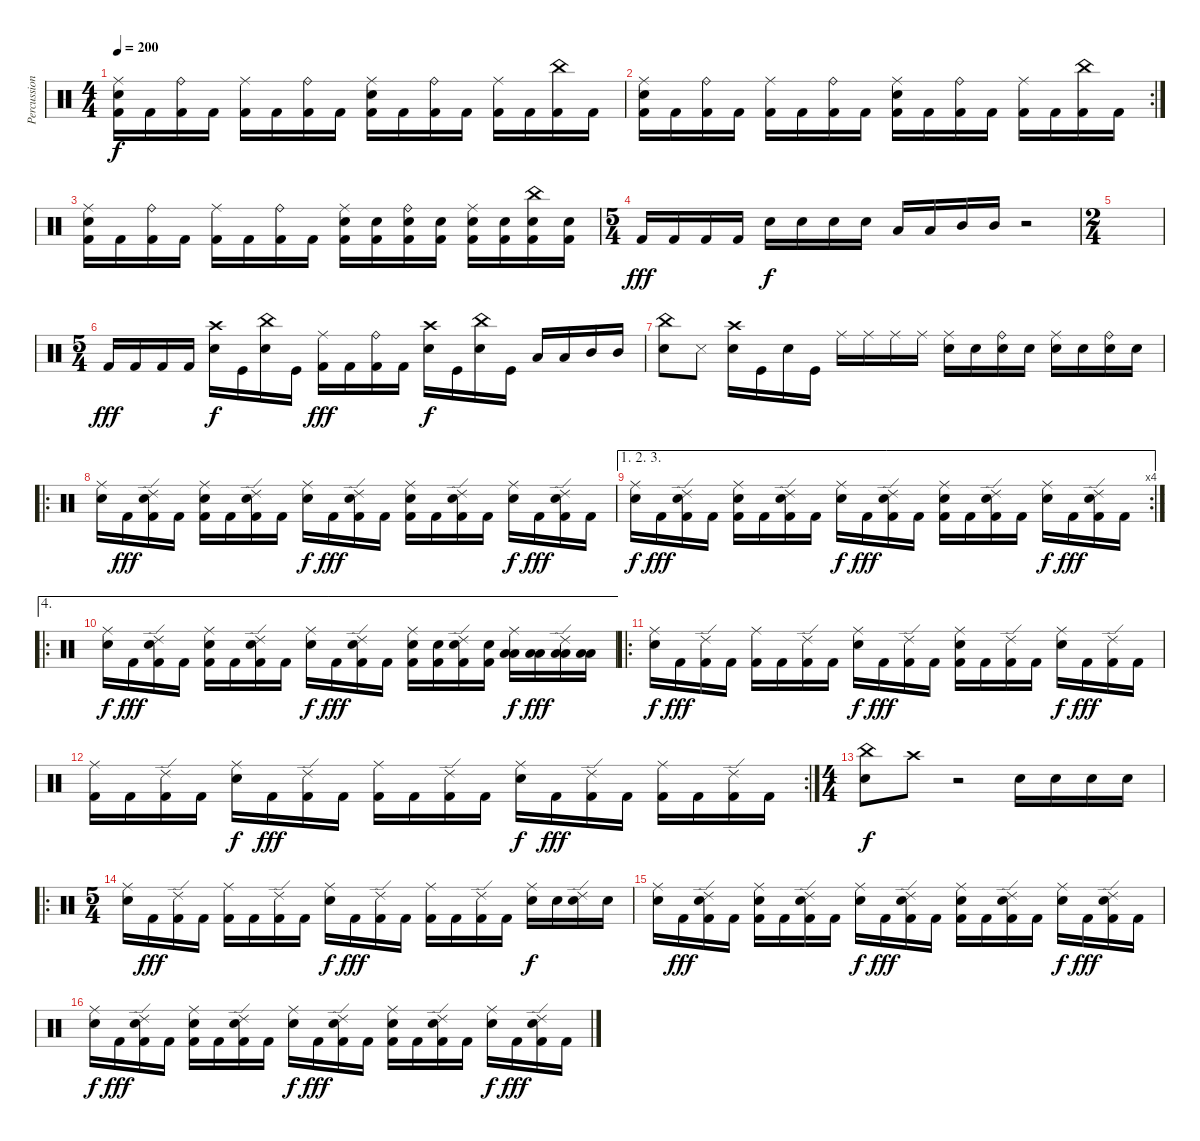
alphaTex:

\track ("Percussion" "Percussion") {instrument percussion}
\staff {score}
\articulation defaults
\ts (4 4)
\tempo 200
\clef neutral
\ks c
("Ride (middle)" "Electric Snare (hit)" "Kick (hit) 2").16{dy f} "Kick (hit) 2".16 ("Ride (bell)" "Kick (hit) 2").16 "Kick (hit) 2".16 ("Ride (middle)" "Kick (hit) 2").16 "Kick (hit) 2".16 ("Ride (bell)" "Kick (hit) 2").16 "Kick (hit) 2".16 ("Ride (middle)" "Electric Snare (hit)" "Kick (hit) 2").16 "Kick (hit) 2".16 ("Ride (bell)" "Kick (hit) 2").16 "Kick (hit) 2".16 ("Ride (middle)" "Kick (hit) 2").16 "Kick (hit) 2".16 ("China (hit)" "Kick (hit) 2").16 "Kick (hit) 2".16 |
\rc 2
("Ride (middle)" "Electric Snare (hit)" "Kick (hit) 2").16 "Kick (hit) 2".16 ("Ride (bell)" "Kick (hit) 2").16 "Kick (hit) 2".16 ("Ride (middle)" "Kick (hit) 2").16 "Kick (hit) 2".16 ("Ride (bell)" "Kick (hit) 2").16 "Kick (hit) 2".16 ("Ride (middle)" "Electric Snare (hit)" "Kick (hit) 2").16 "Kick (hit) 2".16 ("Ride (bell)" "Kick (hit) 2").16 "Kick (hit) 2".16 ("Ride (middle)" "Kick (hit) 2").16 "Kick (hit) 2".16 ("China (hit)" "Kick (hit) 2").16 "Kick (hit) 2".16 |
("Ride (middle)" "Electric Snare (hit)" "Kick (hit) 2").16 "Kick (hit) 2".16 ("Ride (bell)" "Kick (hit) 2").16 "Kick (hit) 2".16 ("Ride (middle)" "Kick (hit) 2").16 "Kick (hit) 2".16 ("Ride (bell)" "Kick (hit) 2").16 "Kick (hit) 2".16 ("Ride (middle)" "Electric Snare (hit)" "Kick (hit) 2").16 ("Electric Snare (hit)" "Kick (hit) 2").16 ("Ride (bell)" "Electric Snare (hit)" "Kick (hit) 2").16 ("Electric Snare (hit)" "Kick (hit) 2").16 ("Ride (middle)" "Electric Snare (hit)" "Kick (hit) 2").16 ("Electric Snare (hit)" "Kick (hit) 2").16 ("China (hit)" "Electric Snare (hit)" "Kick (hit) 2").16 ("Electric Snare (hit)" "Kick (hit) 2").16 |
\ts (5 4)
"Kick (hit) 2".16{dy fff} "Kick (hit) 2".16 "Kick (hit) 2".16 "Kick (hit) 2".16 "Electric Snare (hit)".16{dy f} "Electric Snare (hit)".16 "Electric Snare (hit)".16 "Electric Snare (hit)".16 "Low Tom (hit)".16 "Low Tom (hit)".16 "Mid Tom (hit)".16 "Mid Tom (hit)".16 r.2 |
\ts (2 4)
|
\ts (5 4)
"Kick (hit) 2".16{dy fff} "Kick (hit) 2".16 "Kick (hit) 2".16 "Kick (hit) 2".16 ("Crash high (hit)" "Electric Snare (hit)").16{dy f} "Kick (hit)".16 ("China (hit)" "Electric Snare (hit)").16 "Kick (hit)".16 ("Ride (middle)" "Kick (hit) 2").16{dy fff} "Kick (hit) 2".16 ("Ride (bell)" "Kick (hit) 2").16 "Kick (hit) 2".16 ("Crash high (hit)" "Electric Snare (hit)").16{dy f} "Kick (hit)".16 ("China (hit)" "Electric Snare (hit)").16 "Kick (hit)".16 "Low Tom (hit)".16 "Low Tom (hit)".16 "Mid Tom (hit)".16 "Mid Tom (hit)".16 |
("China (hit)" "Electric Snare (hit)").8 "Snare (side stick) 3".8 ("Crash high (hit)" "Electric Snare (hit)").16 "Kick (hit)".16 "Electric Snare (hit)".16 "Kick (hit)".16 "Ride (middle)".16 "Ride (middle)".16 "Ride (middle)".16 "Ride (middle)".16 ("Ride (middle)" "Electric Snare (hit)").16 "Electric Snare (hit)".16 ("Ride (bell)" "Electric Snare (hit)").16 "Electric Snare (hit)".16 ("Ride (middle)" "Electric Snare (hit)").16 "Electric Snare (hit)".16 ("Ride (bell)" "Electric Snare (hit)").16 "Electric Snare (hit)".16 |
\ro
("Ride (middle)" "Electric Snare (hit)").16 "Kick (hit) 2".16{dy fff} ("Ride (edge) 2" "Electric Snare (hit)" "Kick (hit) 2").16 "Kick (hit) 2".16 ("Ride (middle)" "Electric Snare (hit)" "Kick (hit) 2").16 "Kick (hit) 2".16 ("Ride (edge) 2" "Electric Snare (hit)" "Kick (hit) 2").16 "Kick (hit) 2".16 ("Ride (middle)" "Electric Snare (hit)").16{dy f} "Kick (hit) 2".16{dy fff} ("Ride (edge) 2" "Electric Snare (hit)" "Kick (hit) 2").16 "Kick (hit) 2".16 ("Ride (middle)" "Electric Snare (hit)" "Kick (hit) 2").16 "Kick (hit) 2".16 ("Ride (edge) 2" "Electric Snare (hit)" "Kick (hit) 2").16 "Kick (hit) 2".16 ("Ride (middle)" "Electric Snare (hit)").16{dy f} "Kick (hit) 2".16{dy fff} ("Ride (edge) 2" "Electric Snare (hit)" "Kick (hit) 2").16 "Kick (hit) 2".16 |
\ae (1 2 3)
\rc 4
("Ride (middle)" "Electric Snare (hit)").16{dy f} "Kick (hit) 2".16{dy fff} ("Ride (edge) 2" "Electric Snare (hit)" "Kick (hit) 2").16 "Kick (hit) 2".16 ("Ride (middle)" "Electric Snare (hit)" "Kick (hit) 2").16 "Kick (hit) 2".16 ("Ride (edge) 2" "Electric Snare (hit)" "Kick (hit) 2").16 "Kick (hit) 2".16 ("Ride (middle)" "Electric Snare (hit)").16{dy f} "Kick (hit) 2".16{dy fff} ("Ride (edge) 2" "Electric Snare (hit)" "Kick (hit) 2").16 "Kick (hit) 2".16 ("Ride (middle)" "Electric Snare (hit)" "Kick (hit) 2").16 "Kick (hit) 2".16 ("Ride (edge) 2" "Electric Snare (hit)" "Kick (hit) 2").16 "Kick (hit) 2".16 ("Ride (middle)" "Electric Snare (hit)").16{dy f} "Kick (hit) 2".16{dy fff} ("Ride (edge) 2" "Electric Snare (hit)" "Kick (hit) 2").16 "Kick (hit) 2".16 |
\ae 4
\ro
("Ride (middle)" "Electric Snare (hit)").16{dy f} "Kick (hit) 2".16{dy fff} ("Ride (edge) 2" "Electric Snare (hit)" "Kick (hit) 2").16 "Kick (hit) 2".16 ("Ride (middle)" "Electric Snare (hit)" "Kick (hit) 2").16 "Kick (hit) 2".16 ("Ride (edge) 2" "Electric Snare (hit)" "Kick (hit) 2").16 "Kick (hit) 2".16 ("Ride (middle)" "Electric Snare (hit)").16{dy f} "Kick (hit) 2".16{dy fff} ("Ride (edge) 2" "Electric Snare (hit)" "Kick (hit) 2").16 "Kick (hit) 2".16 ("Ride (middle)" "Electric Snare (hit)" "Kick (hit) 2").16 ("Electric Snare (hit)" "Kick (hit) 2").16 ("Ride (edge) 2" "Electric Snare (hit)" "Kick (hit) 2").16 ("Electric Snare (hit)" "Kick (hit) 2").16 ("Ride (middle)" "Low Tom (hit)" "Low Tom (hit)").16{dy f} ("Low Tom (hit)" "Low Tom (hit)").16{dy fff} ("Ride (edge) 2" "Low Tom (hit)" "Low Tom (hit)").16 ("Low Tom (hit)" "Low Tom (hit)").16 |
\ro
("Ride (middle)" "Electric Snare (hit)").16{dy f} "Kick (hit) 2".16{dy fff} ("Ride (edge) 2" "Kick (hit) 2").16 "Kick (hit) 2".16 ("Ride (middle)" "Kick (hit) 2").16 "Kick (hit) 2".16 ("Ride (edge) 2" "Kick (hit) 2").16 "Kick (hit) 2".16 ("Ride (middle)" "Electric Snare (hit)").16{dy f} "Kick (hit) 2".16{dy fff} ("Ride (edge) 2" "Kick (hit) 2").16 "Kick (hit) 2".16 ("Ride (middle)" "Electric Snare (hit)" "Kick (hit) 2").16 "Kick (hit) 2".16 ("Ride (edge) 2" "Kick (hit) 2").16 "Kick (hit) 2".16 ("Ride (middle)" "Electric Snare (hit)").16{dy f} "Kick (hit) 2".16{dy fff} ("Ride (edge) 2" "Kick (hit) 2").16 "Kick (hit) 2".16 |
\rc 2
("Ride (middle)" "Kick (hit) 2").16 "Kick (hit) 2".16 ("Ride (edge) 2" "Kick (hit) 2").16 "Kick (hit) 2".16 ("Ride (middle)" "Electric Snare (hit)").16{dy f} "Kick (hit) 2".16{dy fff} ("Ride (edge) 2" "Kick (hit) 2").16 "Kick (hit) 2".16 ("Ride (middle)" "Kick (hit) 2").16 "Kick (hit) 2".16 ("Ride (edge) 2" "Kick (hit) 2").16 "Kick (hit) 2".16 ("Ride (middle)" "Electric Snare (hit)").16{dy f} "Kick (hit) 2".16{dy fff} ("Ride (edge) 2" "Kick (hit) 2").16 "Kick (hit) 2".16 ("Ride (middle)" "Kick (hit) 2").16 "Kick (hit) 2".16 ("Ride (edge) 2" "Kick (hit) 2").16 "Kick (hit) 2".16 |
\ts (4 4)
("China (hit)" "Electric Snare (hit)").8{dy f} "Crash high (hit)".8 r.2 "Electric Snare (hit)".16 "Electric Snare (hit)".16 "Electric Snare (hit)".16 "Electric Snare (hit)".16 |
\ro
\ts (5 4)
("Ride (middle)" "Electric Snare (hit)").16 "Kick (hit) 2".16{dy fff} ("Ride (edge) 2" "Kick (hit) 2").16 "Kick (hit) 2".16 ("Ride (middle)" "Kick (hit) 2").16 "Kick (hit) 2".16 ("Ride (edge) 2" "Kick (hit) 2").16 "Kick (hit) 2".16 ("Ride (middle)" "Electric Snare (hit)").16{dy f} "Kick (hit) 2".16{dy fff} ("Ride (edge) 2" "Kick (hit) 2").16 "Kick (hit) 2".16 ("Ride (middle)" "Kick (hit) 2").16 "Kick (hit) 2".16 ("Ride (edge) 2" "Kick (hit) 2").16 "Kick (hit) 2".16 ("Ride (middle)" "Electric Snare (hit)").16{dy f} "Electric Snare (hit)".16 ("Ride (edge) 2" "Electric Snare (hit)").16 "Electric Snare (hit)".16 |
("Ride (middle)" "Electric Snare (hit)").16 "Kick (hit) 2".16{dy fff} ("Ride (edge) 2" "Electric Snare (hit)" "Kick (hit) 2").16 "Kick (hit) 2".16 ("Ride (middle)" "Electric Snare (hit)" "Kick (hit) 2").16 "Kick (hit) 2".16 ("Ride (edge) 2" "Electric Snare (hit)" "Kick (hit) 2").16 "Kick (hit) 2".16 ("Ride (middle)" "Electric Snare (hit)").16{dy f} "Kick (hit) 2".16{dy fff} ("Ride (edge) 2" "Electric Snare (hit)" "Kick (hit) 2").16 "Kick (hit) 2".16 ("Ride (middle)" "Electric Snare (hit)" "Kick (hit) 2").16 "Kick (hit) 2".16 ("Ride (edge) 2" "Electric Snare (hit)" "Kick (hit) 2").16 "Kick (hit) 2".16 ("Ride (middle)" "Electric Snare (hit)").16{dy f} "Kick (hit) 2".16{dy fff} ("Ride (edge) 2" "Electric Snare (hit)" "Kick (hit) 2").16 "Kick (hit) 2".16 |
("Ride (middle)" "Electric Snare (hit)").16{dy f} "Kick (hit) 2".16{dy fff} ("Ride (edge) 2" "Electric Snare (hit)" "Kick (hit) 2").16 "Kick (hit) 2".16 ("Ride (middle)" "Electric Snare (hit)" "Kick (hit) 2").16 "Kick (hit) 2".16 ("Ride (edge) 2" "Electric Snare (hit)" "Kick (hit) 2").16 "Kick (hit) 2".16 ("Ride (middle)" "Electric Snare (hit)").16{dy f} "Kick (hit) 2".16{dy fff} ("Ride (edge) 2" "Electric Snare (hit)" "Kick (hit) 2").16 "Kick (hit) 2".16 ("Ride (middle)" "Electric Snare (hit)" "Kick (hit) 2").16 "Kick (hit) 2".16 ("Ride (edge) 2" "Electric Snare (hit)" "Kick (hit) 2").16 "Kick (hit) 2".16 ("Ride (middle)" "Electric Snare (hit)").16{dy f} "Kick (hit) 2".16{dy fff} ("Ride (edge) 2" "Electric Snare (hit)" "Kick (hit) 2").16 "Kick (hit) 2".16
